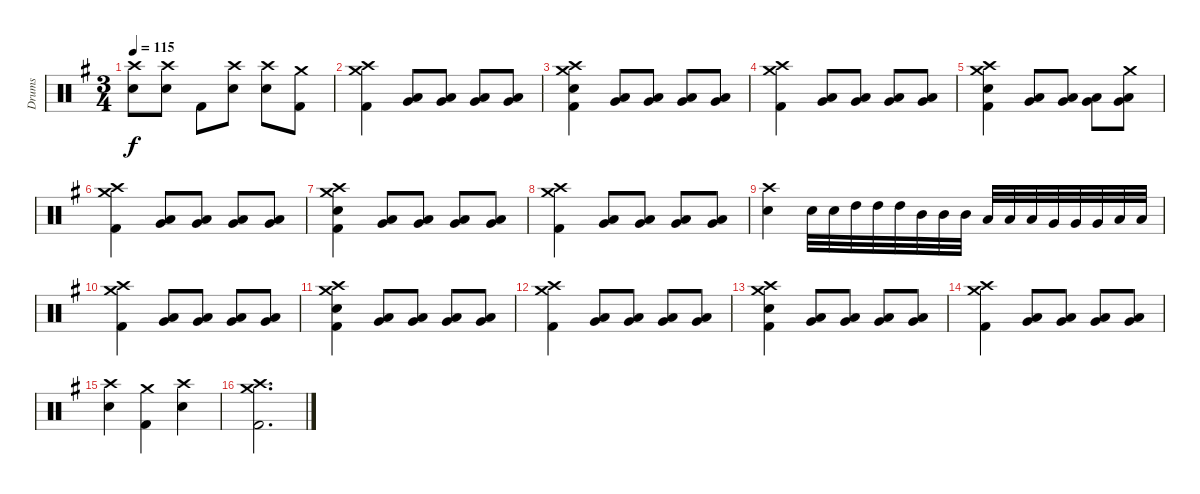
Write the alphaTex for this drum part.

\track ("Drums" "Drums") {instrument percussion}
\staff {score}
\articulation defaults
\ts (3 4)
\tempo 115
\clef neutral
\ks eminor
("Crash high (hit)" "Electric Snare (hit)").8{dy f} ("Crash high (hit)" "Electric Snare (hit)").8 "Kick (hit) 2".8 ("Crash high (hit)" "Electric Snare (hit)").8 ("Crash high (hit)" "Electric Snare (hit)").8 ("Crash medium (hit)" "Kick (hit) 2").8 |
("Crash high (hit)" "Crash medium (hit)" "Kick (hit) 2").4 ("Low Floor Tom (hit)" "Very Low Tom (hit)").8 ("Low Floor Tom (hit)" "Very Low Tom (hit)").8 ("Low Floor Tom (hit)" "Very Low Tom (hit)").8 ("Low Floor Tom (hit)" "Very Low Tom (hit)").8 |
("Crash high (hit)" "Crash medium (hit)" "Electric Snare (hit)" "Kick (hit) 2").4 ("Low Floor Tom (hit)" "Very Low Tom (hit)").8 ("Low Floor Tom (hit)" "Very Low Tom (hit)").8 ("Low Floor Tom (hit)" "Very Low Tom (hit)").8 ("Low Floor Tom (hit)" "Very Low Tom (hit)").8 |
("Crash high (hit)" "Crash medium (hit)" "Kick (hit) 2").4 ("Low Floor Tom (hit)" "Very Low Tom (hit)").8 ("Low Floor Tom (hit)" "Very Low Tom (hit)").8 ("Low Floor Tom (hit)" "Very Low Tom (hit)").8 ("Low Floor Tom (hit)" "Very Low Tom (hit)").8 |
("Crash high (hit)" "Crash medium (hit)" "Electric Snare (hit)" "Kick (hit) 2").4 ("Low Floor Tom (hit)" "Very Low Tom (hit)").8 ("Low Floor Tom (hit)" "Very Low Tom (hit)").8 ("Low Floor Tom (hit)" "Very Low Tom (hit)").8 ("Crash medium (hit)" "Low Floor Tom (hit)" "Very Low Tom (hit)").8 |
("Crash high (hit)" "Crash medium (hit)" "Kick (hit) 2").4 ("Low Floor Tom (hit)" "Very Low Tom (hit)").8 ("Low Floor Tom (hit)" "Very Low Tom (hit)").8 ("Low Floor Tom (hit)" "Very Low Tom (hit)").8 ("Low Floor Tom (hit)" "Very Low Tom (hit)").8 |
("Crash high (hit)" "Crash medium (hit)" "Electric Snare (hit)" "Kick (hit) 2").4 ("Low Floor Tom (hit)" "Very Low Tom (hit)").8 ("Low Floor Tom (hit)" "Very Low Tom (hit)").8 ("Low Floor Tom (hit)" "Very Low Tom (hit)").8 ("Low Floor Tom (hit)" "Very Low Tom (hit)").8 |
("Crash high (hit)" "Crash medium (hit)" "Kick (hit) 2").4 ("Low Floor Tom (hit)" "Very Low Tom (hit)").8 ("Low Floor Tom (hit)" "Very Low Tom (hit)").8 ("Low Floor Tom (hit)" "Very Low Tom (hit)").8 ("Low Floor Tom (hit)" "Very Low Tom (hit)").8 |
("Crash high (hit)" "Electric Snare (hit)").4 "Electric Snare (hit)".32 "Electric Snare (hit)".32 "High Tom (hit)".32 "High Tom (hit)".32 "High Tom (hit)".32 "Mid Tom (hit)".32 "Mid Tom (hit)".32 "Mid Tom (hit)".32 "Low Tom (hit)".32 "Low Tom (hit)".32 "Low Tom (hit)".32 "Very Low Tom (hit)".32 "Very Low Tom (hit)".32 "Very Low Tom (hit)".32 "Low Floor Tom (hit)".32 "Low Floor Tom (hit)".32 |
("Crash high (hit)" "Crash medium (hit)" "Kick (hit) 2").4 ("Low Floor Tom (hit)" "Very Low Tom (hit)").8 ("Low Floor Tom (hit)" "Very Low Tom (hit)").8 ("Low Floor Tom (hit)" "Very Low Tom (hit)").8 ("Low Floor Tom (hit)" "Very Low Tom (hit)").8 |
("Crash high (hit)" "Crash medium (hit)" "Electric Snare (hit)" "Kick (hit) 2").4 ("Low Floor Tom (hit)" "Very Low Tom (hit)").8 ("Low Floor Tom (hit)" "Very Low Tom (hit)").8 ("Low Floor Tom (hit)" "Very Low Tom (hit)").8 ("Low Floor Tom (hit)" "Very Low Tom (hit)").8 |
("Crash high (hit)" "Crash medium (hit)" "Kick (hit) 2").4 ("Low Floor Tom (hit)" "Very Low Tom (hit)").8 ("Low Floor Tom (hit)" "Very Low Tom (hit)").8 ("Low Floor Tom (hit)" "Very Low Tom (hit)").8 ("Low Floor Tom (hit)" "Very Low Tom (hit)").8 |
("Crash high (hit)" "Crash medium (hit)" "Electric Snare (hit)" "Kick (hit) 2").4 ("Low Floor Tom (hit)" "Very Low Tom (hit)").8 ("Low Floor Tom (hit)" "Very Low Tom (hit)").8 ("Low Floor Tom (hit)" "Very Low Tom (hit)").8 ("Low Floor Tom (hit)" "Very Low Tom (hit)").8 |
("Crash high (hit)" "Crash medium (hit)" "Kick (hit) 2").4 ("Low Floor Tom (hit)" "Very Low Tom (hit)").8 ("Low Floor Tom (hit)" "Very Low Tom (hit)").8 ("Low Floor Tom (hit)" "Very Low Tom (hit)").8 ("Low Floor Tom (hit)" "Very Low Tom (hit)").8 |
("Crash high (hit)" "Electric Snare (hit)").4 ("Crash medium (hit)" "Kick (hit) 2").4 ("Crash high (hit)" "Electric Snare (hit)").4 |
("Crash high (hit)" "Crash medium (hit)" "Kick (hit) 2").2{d}
